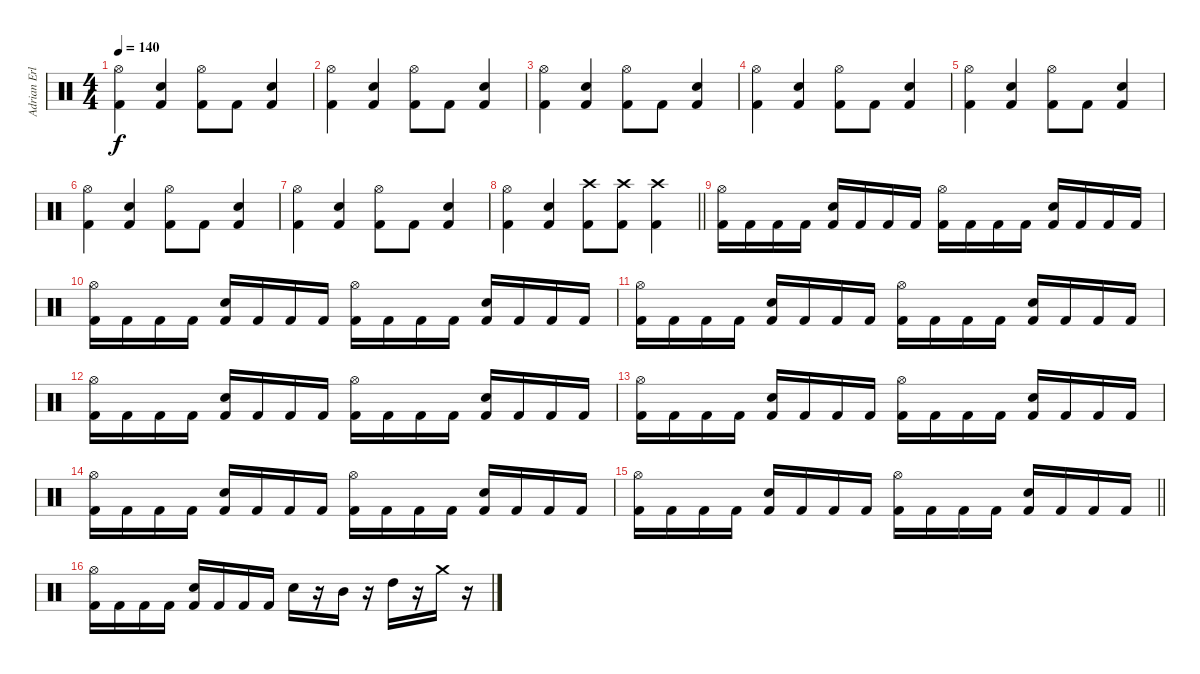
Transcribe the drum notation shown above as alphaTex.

\track ("Adrian Erlandsson" "Adrian Erl") {instrument percussion}
\staff {score}
\articulation defaults
\ts (4 4)
\tempo 140
\clef neutral
\ks c
("Kick (hit) 2" "Hi-Hat (open)").4{dy f} ("Kick (hit) 2" "Electric Snare (hit)").4 ("Kick (hit) 2" "Hi-Hat (open)").8 "Kick (hit) 2".8 ("Kick (hit) 2" "Electric Snare (hit)").4 |
("Kick (hit) 2" "Hi-Hat (open)").4 ("Kick (hit) 2" "Electric Snare (hit)").4 ("Kick (hit) 2" "Hi-Hat (open)").8 "Kick (hit) 2".8 ("Kick (hit) 2" "Electric Snare (hit)").4 |
("Kick (hit) 2" "Hi-Hat (open)").4 ("Kick (hit) 2" "Electric Snare (hit)").4 ("Kick (hit) 2" "Hi-Hat (open)").8 "Kick (hit) 2".8 ("Kick (hit) 2" "Electric Snare (hit)").4 |
("Kick (hit) 2" "Hi-Hat (open)").4 ("Kick (hit) 2" "Electric Snare (hit)").4 ("Kick (hit) 2" "Hi-Hat (open)").8 "Kick (hit) 2".8 ("Kick (hit) 2" "Electric Snare (hit)").4 |
("Kick (hit) 2" "Hi-Hat (open)").4 ("Kick (hit) 2" "Electric Snare (hit)").4 ("Kick (hit) 2" "Hi-Hat (open)").8 "Kick (hit) 2".8 ("Kick (hit) 2" "Electric Snare (hit)").4 |
("Kick (hit) 2" "Hi-Hat (open)").4 ("Kick (hit) 2" "Electric Snare (hit)").4 ("Kick (hit) 2" "Hi-Hat (open)").8 "Kick (hit) 2".8 ("Kick (hit) 2" "Electric Snare (hit)").4 |
("Kick (hit) 2" "Hi-Hat (open)").4 ("Kick (hit) 2" "Electric Snare (hit)").4 ("Kick (hit) 2" "Hi-Hat (open)").8 "Kick (hit) 2".8 ("Kick (hit) 2" "Electric Snare (hit)").4 |
\barLineRight lightlight
("Kick (hit) 2" "Hi-Hat (open)").4 ("Kick (hit) 2" "Electric Snare (hit)").4 ("Kick (hit) 2" "Crash high (hit)").8 ("Kick (hit) 2" "Crash high (hit)").8 ("Kick (hit) 2" "Crash high (hit)").4 |
("Kick (hit) 2" "Hi-Hat (open)").16 "Kick (hit) 2".16 "Kick (hit) 2".16 "Kick (hit) 2".16 ("Kick (hit) 2" "Electric Snare (hit)").16 "Kick (hit) 2".16 "Kick (hit) 2".16 "Kick (hit) 2".16 ("Kick (hit) 2" "Hi-Hat (open)").16 "Kick (hit) 2".16 "Kick (hit) 2".16 "Kick (hit) 2".16 ("Kick (hit) 2" "Electric Snare (hit)").16 "Kick (hit) 2".16 "Kick (hit) 2".16 "Kick (hit) 2".16 |
("Kick (hit) 2" "Hi-Hat (open)").16 "Kick (hit) 2".16 "Kick (hit) 2".16 "Kick (hit) 2".16 ("Kick (hit) 2" "Electric Snare (hit)").16 "Kick (hit) 2".16 "Kick (hit) 2".16 "Kick (hit) 2".16 ("Kick (hit) 2" "Hi-Hat (open)").16 "Kick (hit) 2".16 "Kick (hit) 2".16 "Kick (hit) 2".16 ("Kick (hit) 2" "Electric Snare (hit)").16 "Kick (hit) 2".16 "Kick (hit) 2".16 "Kick (hit) 2".16 |
("Kick (hit) 2" "Hi-Hat (open)").16 "Kick (hit) 2".16 "Kick (hit) 2".16 "Kick (hit) 2".16 ("Kick (hit) 2" "Electric Snare (hit)").16 "Kick (hit) 2".16 "Kick (hit) 2".16 "Kick (hit) 2".16 ("Kick (hit) 2" "Hi-Hat (open)").16 "Kick (hit) 2".16 "Kick (hit) 2".16 "Kick (hit) 2".16 ("Kick (hit) 2" "Electric Snare (hit)").16 "Kick (hit) 2".16 "Kick (hit) 2".16 "Kick (hit) 2".16 |
("Kick (hit) 2" "Hi-Hat (open)").16 "Kick (hit) 2".16 "Kick (hit) 2".16 "Kick (hit) 2".16 ("Kick (hit) 2" "Electric Snare (hit)").16 "Kick (hit) 2".16 "Kick (hit) 2".16 "Kick (hit) 2".16 ("Kick (hit) 2" "Hi-Hat (open)").16 "Kick (hit) 2".16 "Kick (hit) 2".16 "Kick (hit) 2".16 ("Kick (hit) 2" "Electric Snare (hit)").16 "Kick (hit) 2".16 "Kick (hit) 2".16 "Kick (hit) 2".16 |
("Kick (hit) 2" "Hi-Hat (open)").16 "Kick (hit) 2".16 "Kick (hit) 2".16 "Kick (hit) 2".16 ("Kick (hit) 2" "Electric Snare (hit)").16 "Kick (hit) 2".16 "Kick (hit) 2".16 "Kick (hit) 2".16 ("Kick (hit) 2" "Hi-Hat (open)").16 "Kick (hit) 2".16 "Kick (hit) 2".16 "Kick (hit) 2".16 ("Kick (hit) 2" "Electric Snare (hit)").16 "Kick (hit) 2".16 "Kick (hit) 2".16 "Kick (hit) 2".16 |
("Kick (hit) 2" "Hi-Hat (open)").16 "Kick (hit) 2".16 "Kick (hit) 2".16 "Kick (hit) 2".16 ("Kick (hit) 2" "Electric Snare (hit)").16 "Kick (hit) 2".16 "Kick (hit) 2".16 "Kick (hit) 2".16 ("Kick (hit) 2" "Hi-Hat (open)").16 "Kick (hit) 2".16 "Kick (hit) 2".16 "Kick (hit) 2".16 ("Kick (hit) 2" "Electric Snare (hit)").16 "Kick (hit) 2".16 "Kick (hit) 2".16 "Kick (hit) 2".16 |
\barLineRight lightlight
("Kick (hit) 2" "Hi-Hat (open)").16 "Kick (hit) 2".16 "Kick (hit) 2".16 "Kick (hit) 2".16 ("Kick (hit) 2" "Electric Snare (hit)").16 "Kick (hit) 2".16 "Kick (hit) 2".16 "Kick (hit) 2".16 ("Kick (hit) 2" "Hi-Hat (open)").16 "Kick (hit) 2".16 "Kick (hit) 2".16 "Kick (hit) 2".16 ("Kick (hit) 2" "Electric Snare (hit)").16 "Kick (hit) 2".16 "Kick (hit) 2".16 "Kick (hit) 2".16 |
("Kick (hit) 2" "Hi-Hat (open)").16 "Kick (hit) 2".16 "Kick (hit) 2".16 "Kick (hit) 2".16 ("Kick (hit) 2" "Electric Snare (hit)").16 "Kick (hit) 2".16 "Kick (hit) 2".16 "Kick (hit) 2".16 "Snare (hit) 2".16 r.16 "Mid Tom (hit)".16 r.16 "High Tom (hit)".16 r.16 "Crash medium (hit)".16 r.16
